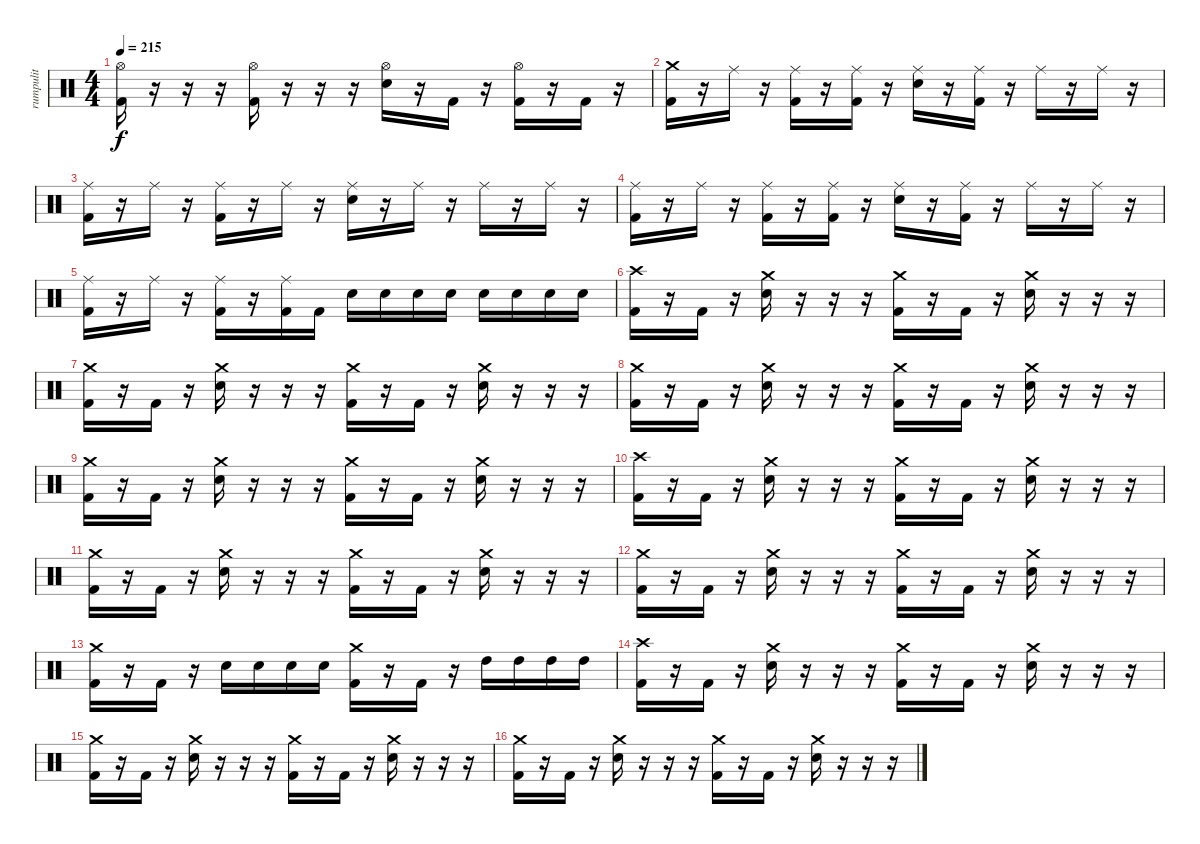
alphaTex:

\track ("rumpulit" "rumpulit") {instrument percussion}
\staff {score}
\articulation defaults
\ts (4 4)
\tempo 215
\clef neutral
\ks c
("Hi-Hat (open)" "Kick (hit) 2").16{dy f} r.16 r.16 r.16 ("Hi-Hat (open)" "Kick (hit) 2").16 r.16 r.16 r.16 ("Hi-Hat (open)" "Electric Snare (hit)").16 r.16 "Kick (hit) 2".16 r.16 ("Hi-Hat (open)" "Kick (hit) 2").16 r.16 "Kick (hit) 2".16 r.16 |
("Crash medium (hit)" "Kick (hit) 2").16 r.16 "Ride (middle)".16 r.16 ("Ride (middle)" "Kick (hit) 2").16 r.16 ("Ride (middle)" "Kick (hit) 2").16 r.16 ("Ride (middle)" "Electric Snare (hit)").16 r.16 ("Ride (middle)" "Kick (hit) 2").16 r.16 "Ride (middle)".16 r.16 "Ride (middle)".16 r.16 |
("Ride (middle)" "Kick (hit) 2").16 r.16 "Ride (middle)".16 r.16 ("Ride (middle)" "Kick (hit) 2").16 r.16 "Ride (middle)".16 r.16 ("Ride (middle)" "Electric Snare (hit)").16 r.16 "Ride (middle)".16 r.16 "Ride (middle)".16 r.16 "Ride (middle)".16 r.16 |
("Ride (middle)" "Kick (hit) 2").16 r.16 "Ride (middle)".16 r.16 ("Ride (middle)" "Kick (hit) 2").16 r.16 ("Ride (middle)" "Kick (hit) 2").16 r.16 ("Ride (middle)" "Electric Snare (hit)").16 r.16 ("Ride (middle)" "Kick (hit) 2").16 r.16 "Ride (middle)".16 r.16 "Ride (middle)".16 r.16 |
("Ride (middle)" "Kick (hit) 2").16 r.16 "Ride (middle)".16 r.16 ("Ride (middle)" "Kick (hit) 2").16 r.16 ("Ride (middle)" "Kick (hit) 2").16 "Kick (hit) 2".16 "Electric Snare (hit)".16 "Electric Snare (hit)".16 "Electric Snare (hit)".16 "Electric Snare (hit)".16 "Electric Snare (hit)".16 "Electric Snare (hit)".16 "Electric Snare (hit)".16 "Electric Snare (hit)".16 |
("Crash high (hit)" "Kick (hit) 2").16 r.16 "Kick (hit) 2".16 r.16 ("Crash medium (hit)" "Electric Snare (hit)").16 r.16 r.16 r.16 ("Crash medium (hit)" "Kick (hit) 2").16 r.16 "Kick (hit) 2".16 r.16 ("Crash medium (hit)" "Electric Snare (hit)").16 r.16 r.16 r.16 |
("Crash medium (hit)" "Kick (hit) 2").16 r.16 "Kick (hit) 2".16 r.16 ("Crash medium (hit)" "Electric Snare (hit)").16 r.16 r.16 r.16 ("Crash medium (hit)" "Kick (hit) 2").16 r.16 "Kick (hit) 2".16 r.16 ("Crash medium (hit)" "Electric Snare (hit)").16 r.16 r.16 r.16 |
("Crash medium (hit)" "Kick (hit) 2").16 r.16 "Kick (hit) 2".16 r.16 ("Crash medium (hit)" "Electric Snare (hit)").16 r.16 r.16 r.16 ("Crash medium (hit)" "Kick (hit) 2").16 r.16 "Kick (hit) 2".16 r.16 ("Crash medium (hit)" "Electric Snare (hit)").16 r.16 r.16 r.16 |
("Crash medium (hit)" "Kick (hit) 2").16 r.16 "Kick (hit) 2".16 r.16 ("Crash medium (hit)" "Electric Snare (hit)").16 r.16 r.16 r.16 ("Crash medium (hit)" "Kick (hit) 2").16 r.16 "Kick (hit) 2".16 r.16 ("Crash medium (hit)" "Electric Snare (hit)").16 r.16 r.16 r.16 |
("Crash high (hit)" "Kick (hit) 2").16 r.16 "Kick (hit) 2".16 r.16 ("Crash medium (hit)" "Electric Snare (hit)").16 r.16 r.16 r.16 ("Crash medium (hit)" "Kick (hit) 2").16 r.16 "Kick (hit) 2".16 r.16 ("Crash medium (hit)" "Electric Snare (hit)").16 r.16 r.16 r.16 |
("Crash medium (hit)" "Kick (hit) 2").16 r.16 "Kick (hit) 2".16 r.16 ("Crash medium (hit)" "Electric Snare (hit)").16 r.16 r.16 r.16 ("Crash medium (hit)" "Kick (hit) 2").16 r.16 "Kick (hit) 2".16 r.16 ("Crash medium (hit)" "Electric Snare (hit)").16 r.16 r.16 r.16 |
("Crash medium (hit)" "Kick (hit) 2").16 r.16 "Kick (hit) 2".16 r.16 ("Crash medium (hit)" "Electric Snare (hit)").16 r.16 r.16 r.16 ("Crash medium (hit)" "Kick (hit) 2").16 r.16 "Kick (hit) 2".16 r.16 ("Crash medium (hit)" "Electric Snare (hit)").16 r.16 r.16 r.16 |
("Crash medium (hit)" "Kick (hit) 2").16 r.16 "Kick (hit) 2".16 r.16 "Electric Snare (hit)".16 "Electric Snare (hit)".16 "Electric Snare (hit)".16 "Electric Snare (hit)".16 ("Crash medium (hit)" "Kick (hit) 2").16 r.16 "Kick (hit) 2".16 r.16 "High Tom (hit)".16 "High Tom (hit)".16 "High Tom (hit)".16 "High Tom (hit)".16 |
("Crash high (hit)" "Kick (hit) 2").16 r.16 "Kick (hit) 2".16 r.16 ("Crash medium (hit)" "Electric Snare (hit)").16 r.16 r.16 r.16 ("Crash medium (hit)" "Kick (hit) 2").16 r.16 "Kick (hit) 2".16 r.16 ("Crash medium (hit)" "Electric Snare (hit)").16 r.16 r.16 r.16 |
("Crash medium (hit)" "Kick (hit) 2").16 r.16 "Kick (hit) 2".16 r.16 ("Crash medium (hit)" "Electric Snare (hit)").16 r.16 r.16 r.16 ("Crash medium (hit)" "Kick (hit) 2").16 r.16 "Kick (hit) 2".16 r.16 ("Crash medium (hit)" "Electric Snare (hit)").16 r.16 r.16 r.16 |
("Crash medium (hit)" "Kick (hit) 2").16 r.16 "Kick (hit) 2".16 r.16 ("Crash medium (hit)" "Electric Snare (hit)").16 r.16 r.16 r.16 ("Crash medium (hit)" "Kick (hit) 2").16 r.16 "Kick (hit) 2".16 r.16 ("Crash medium (hit)" "Electric Snare (hit)").16 r.16 r.16 r.16
